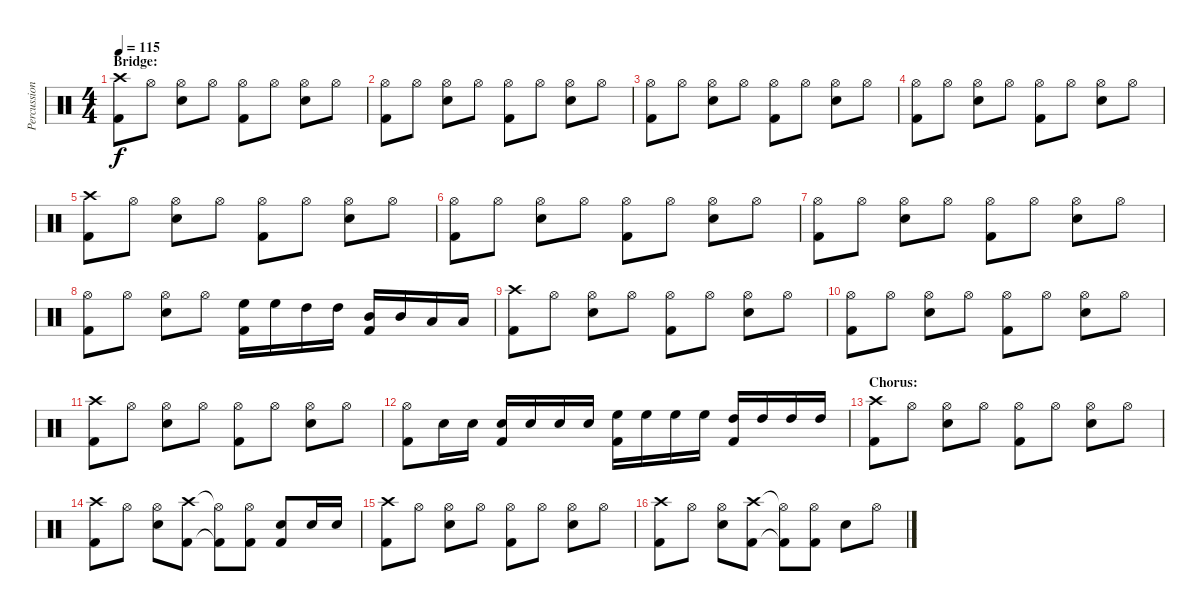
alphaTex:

\track ("Percussion" "Percussion") {instrument percussion}
\staff {score}
\articulation defaults
\ts (4 4)
\section ("" "Bridge:")
\tempo 115
\clef neutral
\ks c
("Crash high (hit)" "Kick (hit) 2").8{dy f} "Hi-Hat (open)".8 ("Hi-Hat (open)" "Snare (hit) 2").8 "Hi-Hat (open)".8 ("Hi-Hat (open)" "Kick (hit) 2").8 "Hi-Hat (open)".8 ("Hi-Hat (open)" "Snare (hit) 2").8 "Hi-Hat (open)".8 |
("Hi-Hat (open)" "Kick (hit) 2").8 "Hi-Hat (open)".8 ("Hi-Hat (open)" "Snare (hit) 2").8 "Hi-Hat (open)".8 ("Hi-Hat (open)" "Kick (hit) 2").8 "Hi-Hat (open)".8 ("Hi-Hat (open)" "Snare (hit) 2").8 "Hi-Hat (open)".8 |
("Hi-Hat (open)" "Kick (hit) 2").8 "Hi-Hat (open)".8 ("Hi-Hat (open)" "Snare (hit) 2").8 "Hi-Hat (open)".8 ("Hi-Hat (open)" "Kick (hit) 2").8 "Hi-Hat (open)".8 ("Hi-Hat (open)" "Snare (hit) 2").8 "Hi-Hat (open)".8 |
("Hi-Hat (open)" "Kick (hit) 2").8 "Hi-Hat (open)".8 ("Hi-Hat (open)" "Snare (hit) 2").8 "Hi-Hat (open)".8 ("Hi-Hat (open)" "Kick (hit) 2").8 "Hi-Hat (open)".8 ("Hi-Hat (open)" "Snare (hit) 2").8 "Hi-Hat (open)".8 |
("Crash high (hit)" "Kick (hit) 2").8 "Hi-Hat (open)".8 ("Hi-Hat (open)" "Snare (hit) 2").8 "Hi-Hat (open)".8 ("Hi-Hat (open)" "Kick (hit) 2").8 "Hi-Hat (open)".8 ("Hi-Hat (open)" "Snare (hit) 2").8 "Hi-Hat (open)".8 |
("Hi-Hat (open)" "Kick (hit) 2").8 "Hi-Hat (open)".8 ("Hi-Hat (open)" "Snare (hit) 2").8 "Hi-Hat (open)".8 ("Hi-Hat (open)" "Kick (hit) 2").8 "Hi-Hat (open)".8 ("Hi-Hat (open)" "Snare (hit) 2").8 "Hi-Hat (open)".8 |
("Hi-Hat (open)" "Kick (hit) 2").8 "Hi-Hat (open)".8 ("Hi-Hat (open)" "Snare (hit) 2").8 "Hi-Hat (open)".8 ("Hi-Hat (open)" "Kick (hit) 2").8 "Hi-Hat (open)".8 ("Hi-Hat (open)" "Snare (hit) 2").8 "Hi-Hat (open)".8 |
("Hi-Hat (open)" "Kick (hit) 2").8 "Hi-Hat (open)".8 ("Hi-Hat (open)" "Snare (hit) 2").8 "Hi-Hat (open)".8 ("High Floor Tom (hit)" "Kick (hit) 2").16 "High Floor Tom (hit)".16 "High Tom (hit)".16 "High Tom (hit)".16 ("Mid Tom (hit)" "Kick (hit) 2").16 "Mid Tom (hit)".16 "Low Tom (hit)".16 "Low Tom (hit)".16 |
("Crash high (hit)" "Kick (hit) 2").8 "Hi-Hat (open)".8 ("Hi-Hat (open)" "Snare (hit) 2").8 "Hi-Hat (open)".8 ("Hi-Hat (open)" "Kick (hit) 2").8 "Hi-Hat (open)".8 ("Hi-Hat (open)" "Snare (hit) 2").8 "Hi-Hat (open)".8 |
("Hi-Hat (open)" "Kick (hit) 2").8 "Hi-Hat (open)".8 ("Hi-Hat (open)" "Snare (hit) 2").8 "Hi-Hat (open)".8 ("Hi-Hat (open)" "Kick (hit) 2").8 "Hi-Hat (open)".8 ("Hi-Hat (open)" "Snare (hit) 2").8 "Hi-Hat (open)".8 |
("Crash high (hit)" "Kick (hit) 2").8 "Hi-Hat (open)".8 ("Hi-Hat (open)" "Snare (hit) 2").8 "Hi-Hat (open)".8 ("Hi-Hat (open)" "Kick (hit) 2").8 "Hi-Hat (open)".8 ("Hi-Hat (open)" "Snare (hit) 2").8 "Hi-Hat (open)".8 |
("Hi-Hat (open)" "Kick (hit) 2").8 "Snare (hit) 2".16 "Snare (hit) 2".16 ("Snare (hit) 2" "Kick (hit) 2").16 "Snare (hit) 2".16 "Snare (hit) 2".16 "Snare (hit) 2".16 ("High Floor Tom (hit)" "Kick (hit) 2").16 "High Floor Tom (hit)".16 "High Floor Tom (hit)".16 "High Floor Tom (hit)".16 ("High Tom (hit)" "Kick (hit) 2").16 "High Tom (hit)".16 "High Tom (hit)".16 "High Tom (hit)".16 |
\section ("" "Chorus:")
("Crash high (hit)" "Kick (hit) 2").8 "Hi-Hat (open)".8 ("Hi-Hat (open)" "Snare (hit) 2").8 "Hi-Hat (open)".8 ("Hi-Hat (open)" "Kick (hit) 2").8 "Hi-Hat (open)".8 ("Hi-Hat (open)" "Snare (hit) 2").8 "Hi-Hat (open)".8 |
("Crash high (hit)" "Kick (hit) 2").8 "Hi-Hat (open)".8 ("Hi-Hat (open)" "Snare (hit) 2").8 ("Crash high (hit)" "Kick (hit) 2").8 ("Hi-Hat (open)"{t} "Kick (hit) 2"{t}).8 ("Hi-Hat (open)" "Kick (hit) 2").8 ("Snare (hit) 2" "Kick (hit) 2").8 "Snare (hit) 2".16 "Snare (hit) 2".16 |
("Crash high (hit)" "Kick (hit) 2").8 "Hi-Hat (open)".8 ("Hi-Hat (open)" "Snare (hit) 2").8 "Hi-Hat (open)".8 ("Hi-Hat (open)" "Kick (hit) 2").8 "Hi-Hat (open)".8 ("Hi-Hat (open)" "Snare (hit) 2").8 "Hi-Hat (open)".8 |
("Crash high (hit)" "Kick (hit) 2").8 "Hi-Hat (open)".8 ("Hi-Hat (open)" "Snare (hit) 2").8 ("Crash high (hit)" "Kick (hit) 2").8 ("Hi-Hat (open)"{t} "Kick (hit) 2"{t}).8 ("Hi-Hat (open)" "Kick (hit) 2").8 "Snare (hit) 2".8 "Hi-Hat (open)".8
